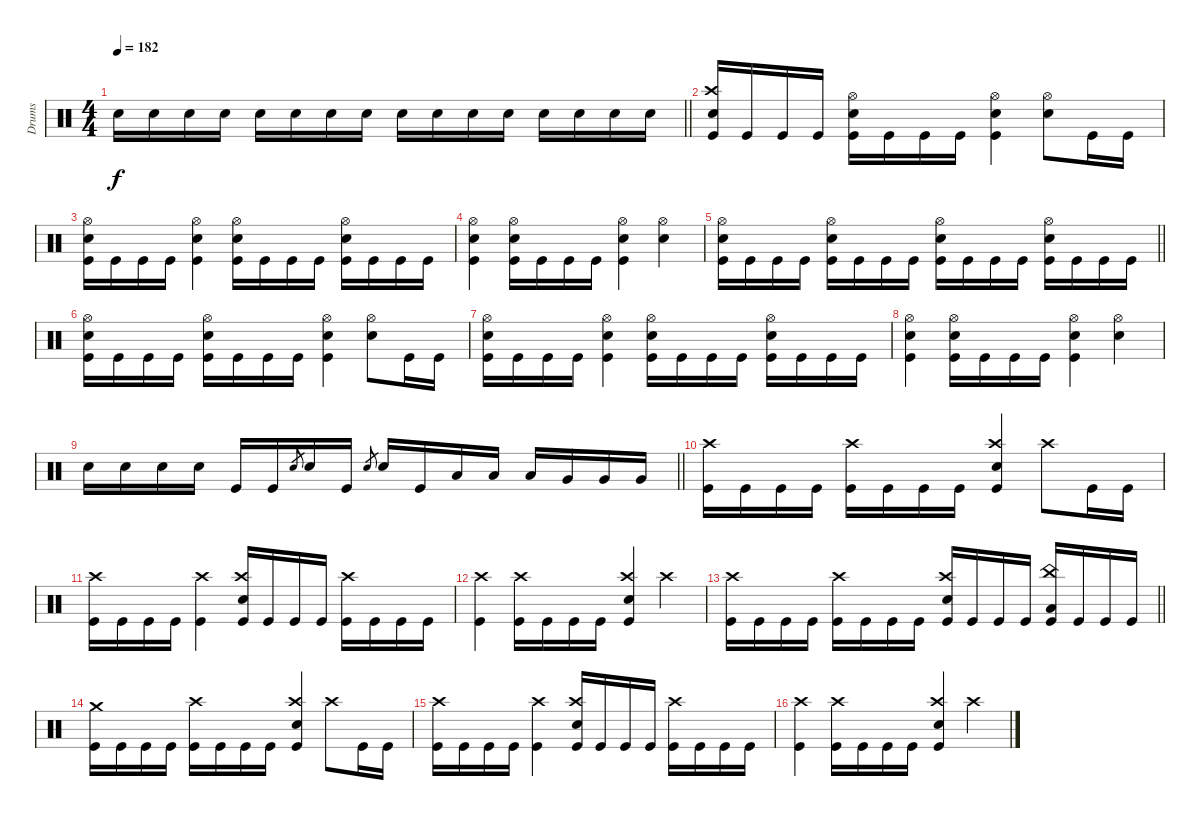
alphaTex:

\track ("Drums" "Drums") {instrument percussion}
\staff
\articulation defaults
\ts (4 4)
\tempo 182
\clef neutral
\barLineRight lightlight
\ks c "Electric Snare (hit)".16{dy f volume 13} "Electric Snare (hit)".16 "Electric Snare (hit)".16 "Electric Snare (hit)".16 "Electric Snare (hit)".16 "Electric Snare (hit)".16 "Electric Snare (hit)".16 "Electric Snare (hit)".16 "Electric Snare (hit)".16 "Electric Snare (hit)".16 "Electric Snare (hit)".16 "Electric Snare (hit)".16 "Electric Snare (hit)".16 "Electric Snare (hit)".16 "Electric Snare (hit)".16 "Electric Snare (hit)".16
|
\section ("" "")
("Crash high (hit)" "Electric Snare (hit)" "Kick (hit)").16 "Kick (hit)".16 "Kick (hit)".16 "Kick (hit)".16 ("Hi-Hat (open)" "Electric Snare (hit)" "Kick (hit)").16 "Kick (hit)".16 "Kick (hit)".16 "Kick (hit)".16 ("Hi-Hat (open)" "Electric Snare (hit)" "Kick (hit)").4 ("Hi-Hat (open)" "Electric Snare (hit)").8 "Kick (hit)".16 "Kick (hit)".16 |
("Hi-Hat (open)" "Electric Snare (hit)" "Kick (hit)").16 "Kick (hit)".16 "Kick (hit)".16 "Kick (hit)".16 ("Hi-Hat (open)" "Electric Snare (hit)" "Kick (hit)").4 ("Hi-Hat (open)" "Electric Snare (hit)" "Kick (hit)").16 "Kick (hit)".16 "Kick (hit)".16 "Kick (hit)".16 ("Hi-Hat (open)" "Electric Snare (hit)" "Kick (hit)").16 "Kick (hit)".16 "Kick (hit)".16 "Kick (hit)".16 |
("Hi-Hat (open)" "Electric Snare (hit)" "Kick (hit)").4 ("Hi-Hat (open)" "Electric Snare (hit)" "Kick (hit)").16 "Kick (hit)".16 "Kick (hit)".16 "Kick (hit)".16 ("Hi-Hat (open)" "Electric Snare (hit)" "Kick (hit)").4 ("Hi-Hat (open)" "Electric Snare (hit)").4 |
\barLineRight lightlight
("Hi-Hat (open)" "Electric Snare (hit)" "Kick (hit)").16 "Kick (hit)".16 "Kick (hit)".16 "Kick (hit)".16 ("Hi-Hat (open)" "Electric Snare (hit)" "Kick (hit)").16 "Kick (hit)".16 "Kick (hit)".16 "Kick (hit)".16 ("Hi-Hat (open)" "Electric Snare (hit)" "Kick (hit)").16 "Kick (hit)".16 "Kick (hit)".16 "Kick (hit)".16 ("Hi-Hat (open)" "Electric Snare (hit)" "Kick (hit)").16 "Kick (hit)".16 "Kick (hit)".16 "Kick (hit)".16 |
("Hi-Hat (open)" "Electric Snare (hit)" "Kick (hit)").16 "Kick (hit)".16 "Kick (hit)".16 "Kick (hit)".16 ("Hi-Hat (open)" "Electric Snare (hit)" "Kick (hit)").16 "Kick (hit)".16 "Kick (hit)".16 "Kick (hit)".16 ("Hi-Hat (open)" "Electric Snare (hit)" "Kick (hit)").4 ("Hi-Hat (open)" "Electric Snare (hit)").8 "Kick (hit)".16 "Kick (hit)".16 |
("Hi-Hat (open)" "Electric Snare (hit)" "Kick (hit)").16 "Kick (hit)".16 "Kick (hit)".16 "Kick (hit)".16 ("Hi-Hat (open)" "Electric Snare (hit)" "Kick (hit)").4 ("Hi-Hat (open)" "Electric Snare (hit)" "Kick (hit)").16 "Kick (hit)".16 "Kick (hit)".16 "Kick (hit)".16 ("Hi-Hat (open)" "Electric Snare (hit)" "Kick (hit)").16 "Kick (hit)".16 "Kick (hit)".16 "Kick (hit)".16 |
("Hi-Hat (open)" "Electric Snare (hit)" "Kick (hit)").4 ("Hi-Hat (open)" "Electric Snare (hit)" "Kick (hit)").16 "Kick (hit)".16 "Kick (hit)".16 "Kick (hit)".16 ("Hi-Hat (open)" "Electric Snare (hit)" "Kick (hit)").4 ("Hi-Hat (open)" "Electric Snare (hit)").4 |
\barLineRight lightlight "Electric Snare (hit)".16 "Electric Snare (hit)".16 "Electric Snare (hit)".16 "Electric Snare (hit)".16 "Kick (hit)".16 "Kick (hit)".16 "Electric Snare (hit)".8{gr} "Electric Snare (hit)".16 "Kick (hit)".16 "Electric Snare (hit)".8{gr} "Electric Snare (hit)".16 "Kick (hit)".16 "Low Tom (hit)".16 "Low Tom (hit)".16 "Low Tom (hit)".16 "Very Low Tom (hit)".16 "Very Low Tom (hit)".16 "Very Low Tom (hit)".16
|
\section ("" "")
("Crash high (hit)" "Kick (hit)").16 "Kick (hit)".16 "Kick (hit)".16 "Kick (hit)".16 ("Crash high (hit)" "Kick (hit)").16 "Kick (hit)".16 "Kick (hit)".16 "Kick (hit)".16 ("Crash high (hit)" "Electric Snare (hit)" "Kick (hit)").4 "Crash high (hit)".8 "Kick (hit)".16 "Kick (hit)".16 |
("Crash high (hit)" "Kick (hit)").16 "Kick (hit)".16 "Kick (hit)".16 "Kick (hit)".16 ("Crash high (hit)" "Kick (hit)").4 ("Crash high (hit)" "Electric Snare (hit)" "Kick (hit)").16 "Kick (hit)".16 "Kick (hit)".16 "Kick (hit)".16 ("Crash high (hit)" "Kick (hit)").16 "Kick (hit)".16 "Kick (hit)".16 "Kick (hit)".16 |
("Crash high (hit)" "Kick (hit)").4 ("Crash high (hit)" "Kick (hit)").16 "Kick (hit)".16 "Kick (hit)".16 "Kick (hit)".16 ("Crash high (hit)" "Electric Snare (hit)" "Kick (hit)").4 "Crash high (hit)".4 |
\barLineRight lightlight
("Crash high (hit)" "Kick (hit)").16 "Kick (hit)".16 "Kick (hit)".16 "Kick (hit)".16 ("Crash high (hit)" "Kick (hit)").16 "Kick (hit)".16 "Kick (hit)".16 "Kick (hit)".16 ("Crash high (hit)" "Electric Snare (hit)" "Kick (hit)").16 "Kick (hit)".16 "Kick (hit)".16 "Kick (hit)".16 ("China (hit)" "Low Floor Tom (hit)" "Kick (hit)").16 "Kick (hit)".16 "Kick (hit)".16 "Kick (hit)".16 |
("Crash medium (hit)" "Kick (hit)").16 "Kick (hit)".16 "Kick (hit)".16 "Kick (hit)".16 ("Crash high (hit)" "Kick (hit)").16 "Kick (hit)".16 "Kick (hit)".16 "Kick (hit)".16 ("Crash high (hit)" "Electric Snare (hit)" "Kick (hit)").4 "Crash high (hit)".8 "Kick (hit)".16 "Kick (hit)".16 |
("Crash high (hit)" "Kick (hit)").16 "Kick (hit)".16 "Kick (hit)".16 "Kick (hit)".16 ("Crash high (hit)" "Kick (hit)").4 ("Crash high (hit)" "Electric Snare (hit)" "Kick (hit)").16 "Kick (hit)".16 "Kick (hit)".16 "Kick (hit)".16 ("Crash high (hit)" "Kick (hit)").16 "Kick (hit)".16 "Kick (hit)".16 "Kick (hit)".16 |
("Crash high (hit)" "Kick (hit)").4 ("Crash high (hit)" "Kick (hit)").16 "Kick (hit)".16 "Kick (hit)".16 "Kick (hit)".16 ("Crash high (hit)" "Electric Snare (hit)" "Kick (hit)").4 "Crash high (hit)".4
